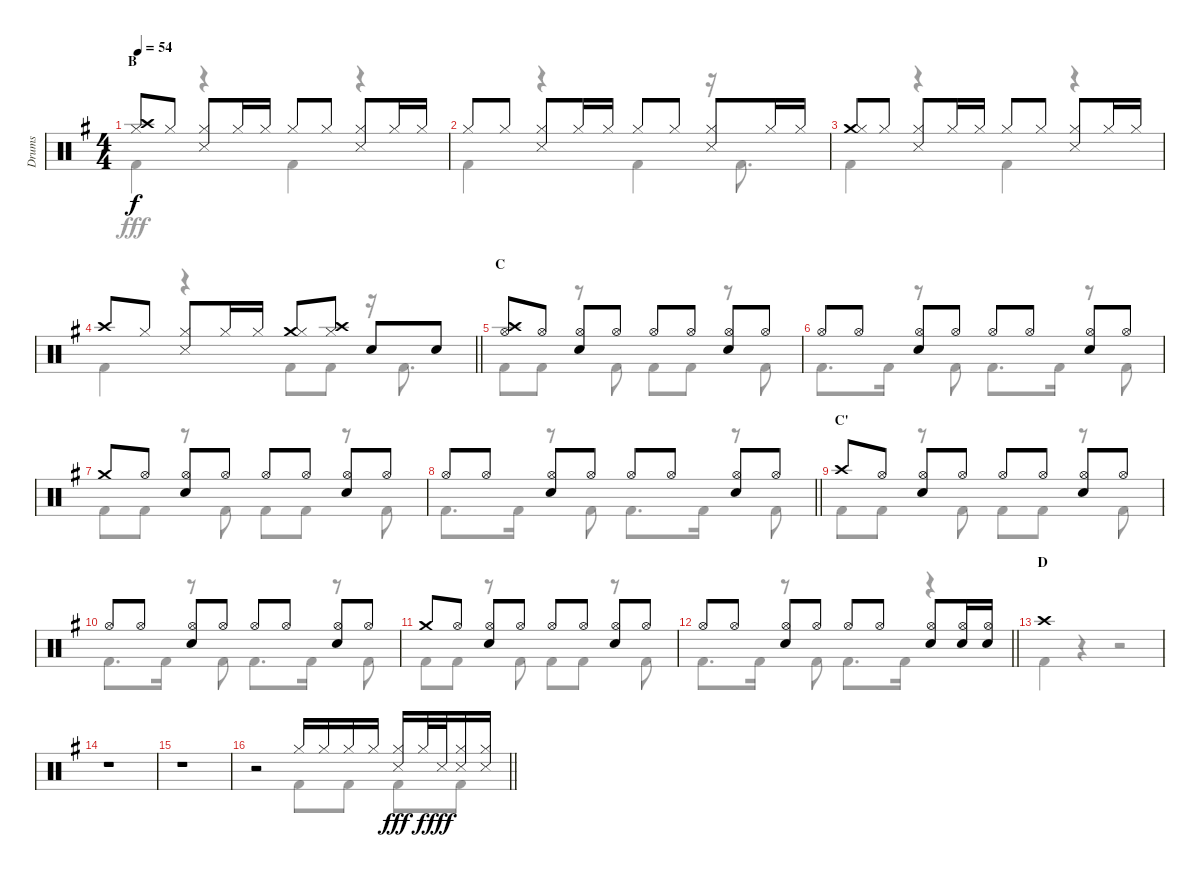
\track ("Drums" "Drums") {instrument percussion}
\staff {score}
\articulation defaults
\voice
\ts (4 4)
\section ("" "B")
\tempo 54
\clef neutral
\ks g
("Crash high (hit)" "Hi-Hat (closed)").8{dy f} "Hi-Hat (closed)".8 ("Hi-Hat (closed)" "Snare (side stick) 3").8 "Hi-Hat (closed)".16 "Hi-Hat (closed)".16 "Hi-Hat (closed)".8 "Hi-Hat (closed)".8 ("Hi-Hat (closed)" "Snare (side stick) 3").8 "Hi-Hat (closed)".16 "Hi-Hat (closed)".16 |
"Hi-Hat (closed)".8 "Hi-Hat (closed)".8 ("Hi-Hat (closed)" "Snare (side stick) 3").8 "Hi-Hat (closed)".16 "Hi-Hat (closed)".16 "Hi-Hat (closed)".8 "Hi-Hat (closed)".8 ("Hi-Hat (closed)" "Snare (side stick) 3").8 "Hi-Hat (closed)".16 "Hi-Hat (closed)".16 |
("Crash medium (hit)" "Hi-Hat (closed)").8 "Hi-Hat (closed)".8 ("Hi-Hat (closed)" "Snare (side stick) 3").8 "Hi-Hat (closed)".16 "Hi-Hat (closed)".16 "Hi-Hat (closed)".8 "Hi-Hat (closed)".8 ("Hi-Hat (closed)" "Snare (side stick) 3").8 "Hi-Hat (closed)".16 "Hi-Hat (closed)".16 |
\barLineRight lightlight "Crash high (hit)".8 "Hi-Hat (closed)".8
("Hi-Hat (closed)" "Snare (side stick) 3").8 "Hi-Hat (closed)".16 "Hi-Hat (closed)".16 ("Crash medium (hit)" "Hi-Hat (closed)").8 ("Crash high (hit)" "Hi-Hat (closed)").8 "Snare (hit) 2".8 "Snare (hit) 2".8 |
\section ("" "C")
("Crash high (hit)" "Hi-Hat (open)").8 "Hi-Hat (open)".8 ("Hi-Hat (open)" "Snare (hit) 2").8 "Hi-Hat (open)".8 "Hi-Hat (open)".8 "Hi-Hat (open)".8 ("Hi-Hat (open)" "Snare (hit) 2").8 "Hi-Hat (open)".8 |
"Hi-Hat (open)".8 "Hi-Hat (open)".8 ("Hi-Hat (open)" "Snare (hit) 2").8 "Hi-Hat (open)".8 "Hi-Hat (open)".8 "Hi-Hat (open)".8 ("Hi-Hat (open)" "Snare (hit) 2").8 "Hi-Hat (open)".8 |
"Crash medium (hit)".8 "Hi-Hat (open)".8 ("Hi-Hat (open)" "Snare (hit) 2").8 "Hi-Hat (open)".8 "Hi-Hat (open)".8 "Hi-Hat (open)".8 ("Hi-Hat (open)" "Snare (hit) 2").8 "Hi-Hat (open)".8 |
\barLineRight lightlight "Hi-Hat (open)".8 "Hi-Hat (open)".8
("Hi-Hat (open)" "Snare (hit) 2").8 "Hi-Hat (open)".8 "Hi-Hat (open)".8 "Hi-Hat (open)".8 ("Hi-Hat (open)" "Snare (hit) 2").8 "Hi-Hat (open)".8 |
\section ("" "C'")
"Crash high (hit)".8 "Hi-Hat (open)".8 ("Hi-Hat (open)" "Snare (hit) 2").8 "Hi-Hat (open)".8 "Hi-Hat (open)".8 "Hi-Hat (open)".8 ("Hi-Hat (open)" "Snare (hit) 2").8 "Hi-Hat (open)".8 |
"Hi-Hat (open)".8 "Hi-Hat (open)".8 ("Hi-Hat (open)" "Snare (hit) 2").8 "Hi-Hat (open)".8 "Hi-Hat (open)".8 "Hi-Hat (open)".8 ("Hi-Hat (open)" "Snare (hit) 2").8 "Hi-Hat (open)".8 |
"Crash medium (hit)".8 "Hi-Hat (open)".8 ("Hi-Hat (open)" "Snare (hit) 2").8 "Hi-Hat (open)".8 "Hi-Hat (open)".8 "Hi-Hat (open)".8 ("Hi-Hat (open)" "Snare (hit) 2").8 "Hi-Hat (open)".8 |
\barLineRight lightlight "Hi-Hat (open)".8 "Hi-Hat (open)".8
("Hi-Hat (open)" "Snare (hit) 2").8 "Hi-Hat (open)".8 "Hi-Hat (open)".8 "Hi-Hat (open)".8 ("Hi-Hat (open)" "Snare (hit) 2").8 ("Hi-Hat (open)" "Snare (hit) 2").16 ("Hi-Hat (open)" "Snare (hit) 2").16 |
\section ("" "D")
"Crash high (hit)".1 |
r.1 |
r.1 |
\barLineRight lightlight
r.2 "Hi-Hat (closed)".16 "Hi-Hat (closed)".16 "Hi-Hat (closed)".16 "Hi-Hat (closed)".16 ("Hi-Hat (closed)" "Snare (side stick) 3").16{dy fff} "Hi-Hat (closed)".32{dy f} "Snare (side stick) 3".32{dy fff} ("Hi-Hat (closed)" "Snare (side stick) 3").16 ("Hi-Hat (closed)" "Snare (side stick) 3").16
\voice
\clef neutral
\ottava regular
\simile none
\ks g "Kick (hit) 2".4{dy fff}
r.4 "Kick (hit) 2".4 r.4 |
"Kick (hit) 2".4 r.4 "Kick (hit) 2".4 r.16 "Kick (hit) 2".8{d} |
"Kick (hit) 2".4 r.4 "Kick (hit) 2".4 r.4 |
\barLineRight lightlight "Kick (hit) 2".4
r.4 "Kick (hit) 2".8 "Kick (hit) 2".8 r.16 "Kick (hit) 2".8{d} |
"Kick (hit) 2".8 "Kick (hit) 2".8 r.8 "Kick (hit) 2".8 "Kick (hit) 2".8 "Kick (hit) 2".8 r.8 "Kick (hit) 2".8 |
"Kick (hit) 2".8{d} "Kick (hit) 2".16 r.8 "Kick (hit) 2".8 "Kick (hit) 2".8{d} "Kick (hit) 2".16 r.8 "Kick (hit) 2".8 |
"Kick (hit) 2".8 "Kick (hit) 2".8 r.8 "Kick (hit) 2".8 "Kick (hit) 2".8 "Kick (hit) 2".8 r.8 "Kick (hit) 2".8 |
\barLineRight lightlight "Kick (hit) 2".8{d} "Kick (hit) 2".16
r.8 "Kick (hit) 2".8 "Kick (hit) 2".8{d} "Kick (hit) 2".16 r.8 "Kick (hit) 2".8 |
"Kick (hit) 2".8 "Kick (hit) 2".8 r.8 "Kick (hit) 2".8 "Kick (hit) 2".8 "Kick (hit) 2".8 r.8 "Kick (hit) 2".8 |
"Kick (hit) 2".8{d} "Kick (hit) 2".16 r.8 "Kick (hit) 2".8 "Kick (hit) 2".8{d} "Kick (hit) 2".16 r.8 "Kick (hit) 2".8 |
"Kick (hit) 2".8 "Kick (hit) 2".8 r.8 "Kick (hit) 2".8 "Kick (hit) 2".8 "Kick (hit) 2".8 r.8 "Kick (hit) 2".8 |
\barLineRight lightlight "Kick (hit) 2".8{d} "Kick (hit) 2".16
r.8 "Kick (hit) 2".8 "Kick (hit) 2".8{d} "Kick (hit) 2".16 r.4 |
"Kick (hit) 2".4 r.4 r.2 |
r.1 |
r.1 |
\barLineRight lightlight
r.2 "Kick (hit) 2".8 "Kick (hit) 2".8 "Kick (hit) 2".8 "Kick (hit) 2".8
